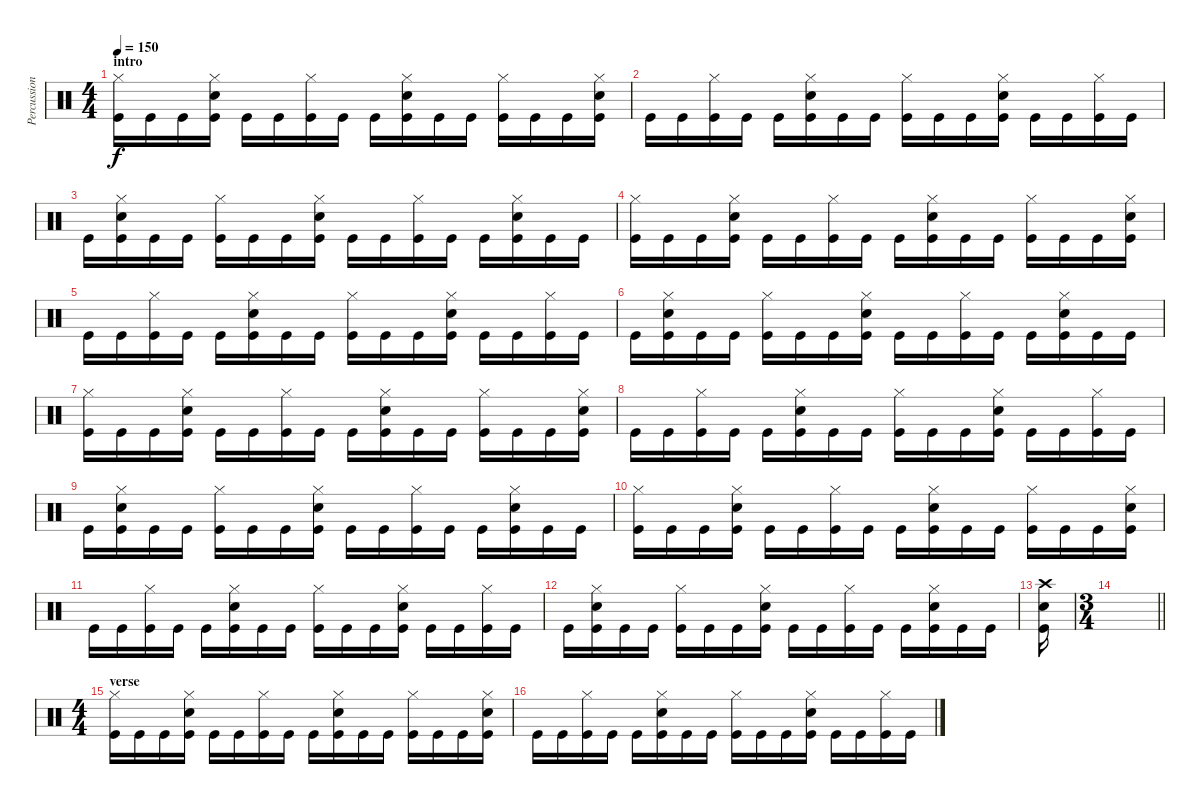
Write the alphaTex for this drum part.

\track ("Percussion" "Percussion") {instrument percussion}
\staff {score}
\articulation defaults
\ts (4 4)
\section ("" "intro")
\tempo 150
\clef neutral
\ks c
("Hi-Hat (closed)" "Kick (hit)").16{dy f} "Kick (hit)".16 "Kick (hit)".16 ("Hi-Hat (closed)" "Kick (hit)" "Snare (hit) 2").16 "Kick (hit)".16 "Kick (hit)".16 ("Hi-Hat (closed)" "Kick (hit)").16 "Kick (hit)".16 "Kick (hit)".16 ("Hi-Hat (closed)" "Kick (hit)" "Snare (hit) 2").16 "Kick (hit)".16 "Kick (hit)".16 ("Hi-Hat (closed)" "Kick (hit)").16 "Kick (hit)".16 "Kick (hit)".16 ("Hi-Hat (closed)" "Kick (hit)" "Snare (hit) 2").16 |
"Kick (hit)".16 "Kick (hit)".16 ("Hi-Hat (closed)" "Kick (hit)").16 "Kick (hit)".16 "Kick (hit)".16 ("Hi-Hat (closed)" "Kick (hit)" "Snare (hit) 2").16 "Kick (hit)".16 "Kick (hit)".16 ("Hi-Hat (closed)" "Kick (hit)").16 "Kick (hit)".16 "Kick (hit)".16 ("Hi-Hat (closed)" "Kick (hit)" "Snare (hit) 2").16 "Kick (hit)".16 "Kick (hit)".16 ("Hi-Hat (closed)" "Kick (hit)").16 "Kick (hit)".16 |
"Kick (hit)".16 ("Hi-Hat (closed)" "Kick (hit)" "Snare (hit) 2").16 "Kick (hit)".16 "Kick (hit)".16 ("Hi-Hat (closed)" "Kick (hit)").16 "Kick (hit)".16 "Kick (hit)".16 ("Hi-Hat (closed)" "Kick (hit)" "Snare (hit) 2").16 "Kick (hit)".16 "Kick (hit)".16 ("Hi-Hat (closed)" "Kick (hit)").16 "Kick (hit)".16 "Kick (hit)".16 ("Hi-Hat (closed)" "Kick (hit)" "Snare (hit) 2").16 "Kick (hit)".16 "Kick (hit)".16 |
("Hi-Hat (closed)" "Kick (hit)").16 "Kick (hit)".16 "Kick (hit)".16 ("Hi-Hat (closed)" "Kick (hit)" "Snare (hit) 2").16 "Kick (hit)".16 "Kick (hit)".16 ("Hi-Hat (closed)" "Kick (hit)").16 "Kick (hit)".16 "Kick (hit)".16 ("Hi-Hat (closed)" "Kick (hit)" "Snare (hit) 2").16 "Kick (hit)".16 "Kick (hit)".16 ("Hi-Hat (closed)" "Kick (hit)").16 "Kick (hit)".16 "Kick (hit)".16 ("Hi-Hat (closed)" "Kick (hit)" "Snare (hit) 2").16 |
"Kick (hit)".16 "Kick (hit)".16 ("Hi-Hat (closed)" "Kick (hit)").16 "Kick (hit)".16 "Kick (hit)".16 ("Hi-Hat (closed)" "Kick (hit)" "Snare (hit) 2").16 "Kick (hit)".16 "Kick (hit)".16 ("Hi-Hat (closed)" "Kick (hit)").16 "Kick (hit)".16 "Kick (hit)".16 ("Hi-Hat (closed)" "Kick (hit)" "Snare (hit) 2").16 "Kick (hit)".16 "Kick (hit)".16 ("Hi-Hat (closed)" "Kick (hit)").16 "Kick (hit)".16 |
"Kick (hit)".16 ("Hi-Hat (closed)" "Kick (hit)" "Snare (hit) 2").16 "Kick (hit)".16 "Kick (hit)".16 ("Hi-Hat (closed)" "Kick (hit)").16 "Kick (hit)".16 "Kick (hit)".16 ("Hi-Hat (closed)" "Kick (hit)" "Snare (hit) 2").16 "Kick (hit)".16 "Kick (hit)".16 ("Hi-Hat (closed)" "Kick (hit)").16 "Kick (hit)".16 "Kick (hit)".16 ("Hi-Hat (closed)" "Kick (hit)" "Snare (hit) 2").16 "Kick (hit)".16 "Kick (hit)".16 |
("Hi-Hat (closed)" "Kick (hit)").16 "Kick (hit)".16 "Kick (hit)".16 ("Hi-Hat (closed)" "Kick (hit)" "Snare (hit) 2").16 "Kick (hit)".16 "Kick (hit)".16 ("Hi-Hat (closed)" "Kick (hit)").16 "Kick (hit)".16 "Kick (hit)".16 ("Hi-Hat (closed)" "Kick (hit)" "Snare (hit) 2").16 "Kick (hit)".16 "Kick (hit)".16 ("Hi-Hat (closed)" "Kick (hit)").16 "Kick (hit)".16 "Kick (hit)".16 ("Hi-Hat (closed)" "Kick (hit)" "Snare (hit) 2").16 |
"Kick (hit)".16 "Kick (hit)".16 ("Hi-Hat (closed)" "Kick (hit)").16 "Kick (hit)".16 "Kick (hit)".16 ("Hi-Hat (closed)" "Kick (hit)" "Snare (hit) 2").16 "Kick (hit)".16 "Kick (hit)".16 ("Hi-Hat (closed)" "Kick (hit)").16 "Kick (hit)".16 "Kick (hit)".16 ("Hi-Hat (closed)" "Kick (hit)" "Snare (hit) 2").16 "Kick (hit)".16 "Kick (hit)".16 ("Hi-Hat (closed)" "Kick (hit)").16 "Kick (hit)".16 |
"Kick (hit)".16 ("Hi-Hat (closed)" "Kick (hit)" "Snare (hit) 2").16 "Kick (hit)".16 "Kick (hit)".16 ("Hi-Hat (closed)" "Kick (hit)").16 "Kick (hit)".16 "Kick (hit)".16 ("Hi-Hat (closed)" "Kick (hit)" "Snare (hit) 2").16 "Kick (hit)".16 "Kick (hit)".16 ("Hi-Hat (closed)" "Kick (hit)").16 "Kick (hit)".16 "Kick (hit)".16 ("Hi-Hat (closed)" "Kick (hit)" "Snare (hit) 2").16 "Kick (hit)".16 "Kick (hit)".16 |
("Hi-Hat (closed)" "Kick (hit)").16 "Kick (hit)".16 "Kick (hit)".16 ("Hi-Hat (closed)" "Kick (hit)" "Snare (hit) 2").16 "Kick (hit)".16 "Kick (hit)".16 ("Hi-Hat (closed)" "Kick (hit)").16 "Kick (hit)".16 "Kick (hit)".16 ("Hi-Hat (closed)" "Kick (hit)" "Snare (hit) 2").16 "Kick (hit)".16 "Kick (hit)".16 ("Hi-Hat (closed)" "Kick (hit)").16 "Kick (hit)".16 "Kick (hit)".16 ("Hi-Hat (closed)" "Kick (hit)" "Snare (hit) 2").16 |
"Kick (hit)".16 "Kick (hit)".16 ("Hi-Hat (closed)" "Kick (hit)").16 "Kick (hit)".16 "Kick (hit)".16 ("Hi-Hat (closed)" "Kick (hit)" "Snare (hit) 2").16 "Kick (hit)".16 "Kick (hit)".16 ("Hi-Hat (closed)" "Kick (hit)").16 "Kick (hit)".16 "Kick (hit)".16 ("Hi-Hat (closed)" "Kick (hit)" "Snare (hit) 2").16 "Kick (hit)".16 "Kick (hit)".16 ("Hi-Hat (closed)" "Kick (hit)").16 "Kick (hit)".16 |
"Kick (hit)".16 ("Hi-Hat (closed)" "Kick (hit)" "Snare (hit) 2").16 "Kick (hit)".16 "Kick (hit)".16 ("Hi-Hat (closed)" "Kick (hit)").16 "Kick (hit)".16 "Kick (hit)".16 ("Hi-Hat (closed)" "Kick (hit)" "Snare (hit) 2").16 "Kick (hit)".16 "Kick (hit)".16 ("Hi-Hat (closed)" "Kick (hit)").16 "Kick (hit)".16 "Kick (hit)".16 ("Hi-Hat (closed)" "Kick (hit)" "Snare (hit) 2").16 "Kick (hit)".16 "Kick (hit)".16 |
("Kick (hit)" "Snare (hit) 2" "Crash high (hit)").16 |
\ts (3 4)
\barLineRight lightlight
|
\ts (4 4)
\section ("" "verse")
("Hi-Hat (closed)" "Kick (hit)").16 "Kick (hit)".16 "Kick (hit)".16 ("Hi-Hat (closed)" "Kick (hit)" "Snare (hit) 2").16 "Kick (hit)".16 "Kick (hit)".16 ("Hi-Hat (closed)" "Kick (hit)").16 "Kick (hit)".16 "Kick (hit)".16 ("Hi-Hat (closed)" "Kick (hit)" "Snare (hit) 2").16 "Kick (hit)".16 "Kick (hit)".16 ("Hi-Hat (closed)" "Kick (hit)").16 "Kick (hit)".16 "Kick (hit)".16 ("Hi-Hat (closed)" "Kick (hit)" "Snare (hit) 2").16 |
"Kick (hit)".16 "Kick (hit)".16 ("Hi-Hat (closed)" "Kick (hit)").16 "Kick (hit)".16 "Kick (hit)".16 ("Hi-Hat (closed)" "Kick (hit)" "Snare (hit) 2").16 "Kick (hit)".16 "Kick (hit)".16 ("Hi-Hat (closed)" "Kick (hit)").16 "Kick (hit)".16 "Kick (hit)".16 ("Hi-Hat (closed)" "Kick (hit)" "Snare (hit) 2").16 "Kick (hit)".16 "Kick (hit)".16 ("Hi-Hat (closed)" "Kick (hit)").16 "Kick (hit)".16
